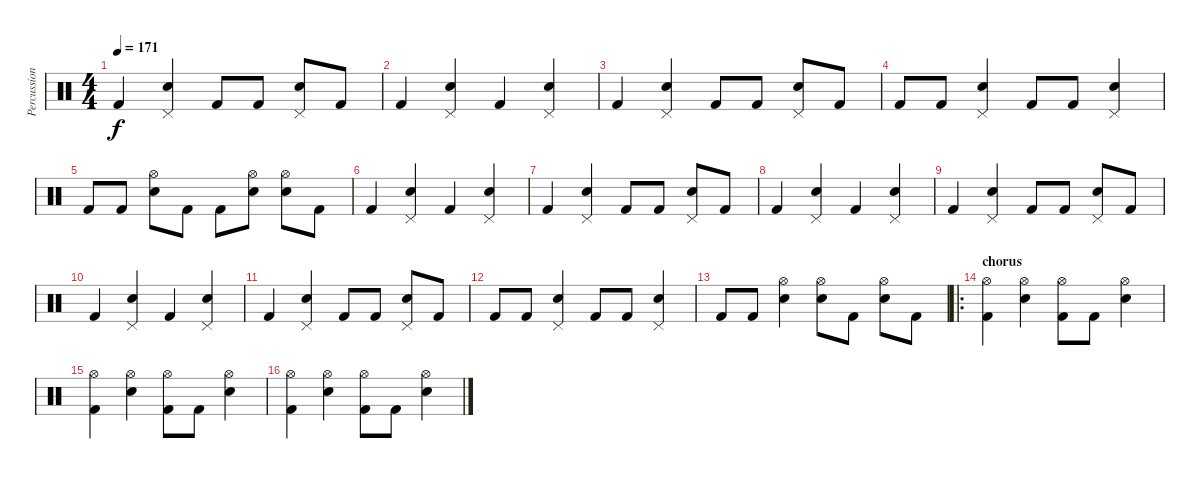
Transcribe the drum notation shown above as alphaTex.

\track ("Percussion" "Percussion") {instrument percussion}
\staff {score}
\articulation defaults
\ts (4 4)
\tempo 171
\clef neutral
\ks c "Kick (hit) 2".4{dy f}
("Pedal Hi-Hat (hit)" "Electric Snare (hit)").4 "Kick (hit) 2".8 "Kick (hit) 2".8 ("Pedal Hi-Hat (hit)" "Electric Snare (hit)").8 "Kick (hit) 2".8 |
"Kick (hit) 2".4 ("Pedal Hi-Hat (hit)" "Electric Snare (hit)").4 "Kick (hit) 2".4 ("Pedal Hi-Hat (hit)" "Electric Snare (hit)").4 |
"Kick (hit) 2".4 ("Pedal Hi-Hat (hit)" "Electric Snare (hit)").4 "Kick (hit) 2".8 "Kick (hit) 2".8 ("Pedal Hi-Hat (hit)" "Electric Snare (hit)").8 "Kick (hit) 2".8 |
"Kick (hit) 2".8 "Kick (hit) 2".8 ("Pedal Hi-Hat (hit)" "Electric Snare (hit)").4 "Kick (hit) 2".8 "Kick (hit) 2".8 ("Pedal Hi-Hat (hit)" "Electric Snare (hit)").4 |
"Kick (hit) 2".8 "Kick (hit) 2".8 ("Hi-Hat (open)" "Electric Snare (hit)").8 "Kick (hit) 2".8 "Kick (hit) 2".8 ("Hi-Hat (open)" "Electric Snare (hit)").8 ("Hi-Hat (open)" "Electric Snare (hit)").8 "Kick (hit) 2".8 |
"Kick (hit) 2".4 ("Pedal Hi-Hat (hit)" "Electric Snare (hit)").4 "Kick (hit) 2".4 ("Pedal Hi-Hat (hit)" "Electric Snare (hit)").4 |
"Kick (hit) 2".4 ("Pedal Hi-Hat (hit)" "Electric Snare (hit)").4 "Kick (hit) 2".8 "Kick (hit) 2".8 ("Pedal Hi-Hat (hit)" "Electric Snare (hit)").8 "Kick (hit) 2".8 |
"Kick (hit) 2".4 ("Pedal Hi-Hat (hit)" "Electric Snare (hit)").4 "Kick (hit) 2".4 ("Pedal Hi-Hat (hit)" "Electric Snare (hit)").4 |
"Kick (hit) 2".4 ("Pedal Hi-Hat (hit)" "Electric Snare (hit)").4 "Kick (hit) 2".8 "Kick (hit) 2".8 ("Pedal Hi-Hat (hit)" "Electric Snare (hit)").8 "Kick (hit) 2".8 |
"Kick (hit) 2".4 ("Pedal Hi-Hat (hit)" "Electric Snare (hit)").4 "Kick (hit) 2".4 ("Pedal Hi-Hat (hit)" "Electric Snare (hit)").4 |
"Kick (hit) 2".4 ("Pedal Hi-Hat (hit)" "Electric Snare (hit)").4 "Kick (hit) 2".8 "Kick (hit) 2".8 ("Pedal Hi-Hat (hit)" "Electric Snare (hit)").8 "Kick (hit) 2".8 |
"Kick (hit) 2".8 "Kick (hit) 2".8 ("Pedal Hi-Hat (hit)" "Electric Snare (hit)").4 "Kick (hit) 2".8 "Kick (hit) 2".8 ("Pedal Hi-Hat (hit)" "Electric Snare (hit)").4 |
"Kick (hit) 2".8 "Kick (hit) 2".8 ("Hi-Hat (open)" "Electric Snare (hit)").4 ("Hi-Hat (open)" "Electric Snare (hit)").8 "Kick (hit) 2".8 ("Hi-Hat (open)" "Electric Snare (hit)").8 "Kick (hit) 2".8 |
\ro
\section ("" "chorus")
("Hi-Hat (open)" "Kick (hit) 2").4 ("Hi-Hat (open)" "Electric Snare (hit)").4 ("Hi-Hat (open)" "Kick (hit) 2").8 "Kick (hit) 2".8 ("Hi-Hat (open)" "Electric Snare (hit)").4 |
("Hi-Hat (open)" "Kick (hit) 2").4 ("Hi-Hat (open)" "Electric Snare (hit)").4 ("Hi-Hat (open)" "Kick (hit) 2").8 "Kick (hit) 2".8 ("Hi-Hat (open)" "Electric Snare (hit)").4 |
("Hi-Hat (open)" "Kick (hit) 2").4 ("Hi-Hat (open)" "Electric Snare (hit)").4 ("Hi-Hat (open)" "Kick (hit) 2").8 "Kick (hit) 2".8 ("Hi-Hat (open)" "Electric Snare (hit)").4
